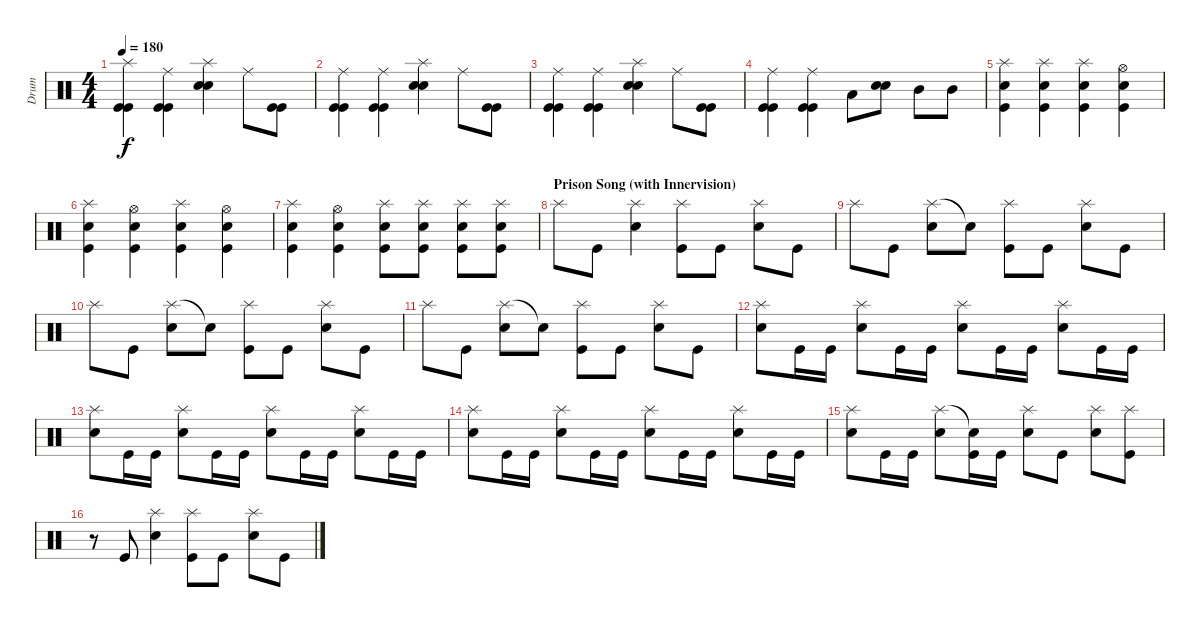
\track ("Drum" "Drum") {instrument percussion}
\staff {score}
\articulation defaults
\ts (4 4)
\tempo 180
\clef neutral
\ks c
("Splash (hit)" "Kick (hit)" "Kick (hit)").4{dy f} ("Ride (middle)" "Kick (hit)" "Kick (hit)").4 ("Splash (hit)" "Snare (hit) 2" "Snare (hit) 2").4 "Ride (middle)".8 ("Kick (hit)" "Kick (hit)").8 |
("Ride (middle)" "Kick (hit)" "Kick (hit)").4 ("Ride (middle)" "Kick (hit)" "Kick (hit)").4 ("Splash (hit)" "Snare (hit) 2" "Snare (hit) 2").4 "Ride (middle)".8 ("Kick (hit)" "Kick (hit)").8 |
("Ride (middle)" "Kick (hit)" "Kick (hit)").4 ("Ride (middle)" "Kick (hit)" "Kick (hit)").4 ("Splash (hit)" "Snare (hit) 2" "Snare (hit) 2").4 "Ride (middle)".8 ("Kick (hit)" "Kick (hit)").8 |
("Ride (middle)" "Kick (hit)" "Kick (hit)").4 ("Ride (middle)" "Kick (hit)" "Kick (hit)").4 "Low Tom (hit)".8 ("Snare (hit) 2" "Snare (hit) 2").8 "Mid Tom (hit)".8 "Mid Tom (hit)".8 |
("Splash (hit)" "Snare (hit) 2" "Kick (hit)").4 ("Splash (hit)" "Snare (hit) 2" "Kick (hit)").4 ("Splash (hit)" "Snare (hit) 2" "Kick (hit)").4 ("Hi-Hat (open)" "Snare (hit) 2" "Kick (hit)").4 |
("Splash (hit)" "Snare (hit) 2" "Kick (hit)").4 ("Hi-Hat (open)" "Snare (hit) 2" "Kick (hit)").4 ("Splash (hit)" "Snare (hit) 2" "Kick (hit)").4 ("Hi-Hat (open)" "Snare (hit) 2" "Kick (hit)").4 |
("Splash (hit)" "Snare (hit) 2" "Kick (hit)").4 ("Hi-Hat (open)" "Snare (hit) 2" "Kick (hit)").4 ("Splash (hit)" "Snare (hit) 2" "Kick (hit)").8 ("Splash (hit)" "Snare (hit) 2" "Kick (hit)").8 ("Splash (hit)" "Snare (hit) 2" "Kick (hit)").8 ("Splash (hit)" "Snare (hit) 2" "Kick (hit)").8 |
\section ("" "Prison Song (with Innervision)")
"Splash (hit)".8 "Kick (hit)".8 ("Splash (hit)" "Snare (hit) 2").4 ("Splash (hit)" "Kick (hit)").8 "Kick (hit)".8 ("Splash (hit)" "Snare (hit) 2").8 "Kick (hit)".8 |
"Splash (hit)".8 "Kick (hit)".8 ("Splash (hit)" "Snare (hit) 2").8 "Snare (hit)"{t}.8 ("Splash (hit)" "Kick (hit)").8 "Kick (hit)".8 ("Splash (hit)" "Snare (hit) 2").8 "Kick (hit)".8 |
"Splash (hit)".8 "Kick (hit)".8 ("Splash (hit)" "Snare (hit) 2").8 "Snare (hit)"{t}.8 ("Splash (hit)" "Kick (hit)").8 "Kick (hit)".8 ("Splash (hit)" "Snare (hit) 2").8 "Kick (hit)".8 |
"Splash (hit)".8 "Kick (hit)".8 ("Splash (hit)" "Snare (hit) 2").8 "Snare (hit)"{t}.8 ("Splash (hit)" "Kick (hit)").8 "Kick (hit)".8 ("Splash (hit)" "Snare (hit) 2").8 "Kick (hit)".8 |
("Splash (hit)" "Snare (hit) 2").8 "Kick (hit)".16 "Kick (hit)".16 ("Splash (hit)" "Snare (hit) 2").8 "Kick (hit)".16 "Kick (hit)".16 ("Splash (hit)" "Snare (hit) 2").8 "Kick (hit)".16 "Kick (hit)".16 ("Splash (hit)" "Snare (hit) 2").8 "Kick (hit)".16 "Kick (hit)".16 |
("Splash (hit)" "Snare (hit) 2").8 "Kick (hit)".16 "Kick (hit)".16 ("Splash (hit)" "Snare (hit) 2").8 "Kick (hit)".16 "Kick (hit)".16 ("Splash (hit)" "Snare (hit) 2").8 "Kick (hit)".16 "Kick (hit)".16 ("Splash (hit)" "Snare (hit) 2").8 "Kick (hit)".16 "Kick (hit)".16 |
("Splash (hit)" "Snare (hit) 2").8 "Kick (hit)".16 "Kick (hit)".16 ("Splash (hit)" "Snare (hit) 2").8 "Kick (hit)".16 "Kick (hit)".16 ("Splash (hit)" "Snare (hit) 2").8 "Kick (hit)".16 "Kick (hit)".16 ("Splash (hit)" "Snare (hit) 2").8 "Kick (hit)".16 "Kick (hit)".16 |
("Splash (hit)" "Snare (hit) 2").8 "Kick (hit)".16 "Kick (hit)".16 ("Splash (hit)" "Snare (hit) 2").8 ("Snare (hit)"{t} "Kick (hit)").16 "Kick (hit)".16 ("Splash (hit)" "Snare (hit) 2").8 "Kick (hit)".8 ("Splash (hit)" "Snare (hit) 2").8 ("Splash (hit)" "Kick (hit)").8 |
r.8 "Kick (hit)".8 ("Splash (hit)" "Snare (hit) 2").4 ("Splash (hit)" "Kick (hit)").8 "Kick (hit)".8 ("Splash (hit)" "Snare (hit) 2").8 "Kick (hit)".8
